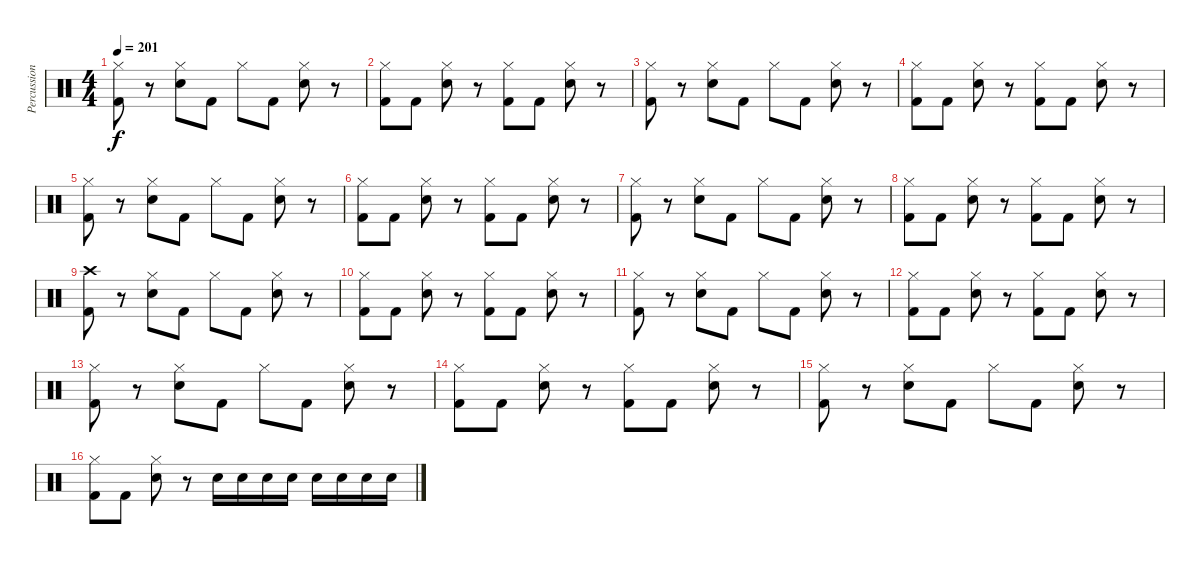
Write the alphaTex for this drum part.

\track ("Percussion" "Percussion") {instrument percussion}
\staff {score}
\articulation defaults
\ts (4 4)
\tempo 201
\clef neutral
\ks c
("Hi-Hat (closed)" "Kick (hit) 2").8{dy f} r.8 ("Hi-Hat (closed)" "Electric Snare (hit)").8 "Kick (hit) 2".8 "Hi-Hat (closed)".8 "Kick (hit) 2".8 ("Hi-Hat (closed)" "Electric Snare (hit)").8 r.8 |
("Hi-Hat (closed)" "Kick (hit) 2").8 "Kick (hit) 2".8 ("Hi-Hat (closed)" "Electric Snare (hit)").8 r.8 ("Hi-Hat (closed)" "Kick (hit) 2").8 "Kick (hit) 2".8 ("Hi-Hat (closed)" "Electric Snare (hit)").8 r.8 |
("Hi-Hat (closed)" "Kick (hit) 2").8 r.8 ("Hi-Hat (closed)" "Electric Snare (hit)").8 "Kick (hit) 2".8 "Hi-Hat (closed)".8 "Kick (hit) 2".8 ("Hi-Hat (closed)" "Electric Snare (hit)").8 r.8 |
("Hi-Hat (closed)" "Kick (hit) 2").8 "Kick (hit) 2".8 ("Hi-Hat (closed)" "Electric Snare (hit)").8 r.8 ("Hi-Hat (closed)" "Kick (hit) 2").8 "Kick (hit) 2".8 ("Hi-Hat (closed)" "Electric Snare (hit)").8 r.8 |
("Hi-Hat (closed)" "Kick (hit) 2").8 r.8 ("Hi-Hat (closed)" "Electric Snare (hit)").8 "Kick (hit) 2".8 "Hi-Hat (closed)".8 "Kick (hit) 2".8 ("Hi-Hat (closed)" "Electric Snare (hit)").8 r.8 |
("Hi-Hat (closed)" "Kick (hit) 2").8 "Kick (hit) 2".8 ("Hi-Hat (closed)" "Electric Snare (hit)").8 r.8 ("Hi-Hat (closed)" "Kick (hit) 2").8 "Kick (hit) 2".8 ("Hi-Hat (closed)" "Electric Snare (hit)").8 r.8 |
("Hi-Hat (closed)" "Kick (hit) 2").8 r.8 ("Hi-Hat (closed)" "Electric Snare (hit)").8 "Kick (hit) 2".8 "Hi-Hat (closed)".8 "Kick (hit) 2".8 ("Hi-Hat (closed)" "Electric Snare (hit)").8 r.8 |
("Hi-Hat (closed)" "Kick (hit) 2").8 "Kick (hit) 2".8 ("Hi-Hat (closed)" "Electric Snare (hit)").8 r.8 ("Hi-Hat (closed)" "Kick (hit) 2").8 "Kick (hit) 2".8 ("Hi-Hat (closed)" "Electric Snare (hit)").8 r.8 |
("Crash high (hit)" "Kick (hit) 2").8 r.8 ("Hi-Hat (closed)" "Electric Snare (hit)").8 "Kick (hit) 2".8 "Hi-Hat (closed)".8 "Kick (hit) 2".8 ("Hi-Hat (closed)" "Electric Snare (hit)").8 r.8 |
("Hi-Hat (closed)" "Kick (hit) 2").8 "Kick (hit) 2".8 ("Hi-Hat (closed)" "Electric Snare (hit)").8 r.8 ("Hi-Hat (closed)" "Kick (hit) 2").8 "Kick (hit) 2".8 ("Hi-Hat (closed)" "Electric Snare (hit)").8 r.8 |
("Hi-Hat (closed)" "Kick (hit) 2").8 r.8 ("Hi-Hat (closed)" "Electric Snare (hit)").8 "Kick (hit) 2".8 "Hi-Hat (closed)".8 "Kick (hit) 2".8 ("Hi-Hat (closed)" "Electric Snare (hit)").8 r.8 |
("Hi-Hat (closed)" "Kick (hit) 2").8 "Kick (hit) 2".8 ("Hi-Hat (closed)" "Electric Snare (hit)").8 r.8 ("Hi-Hat (closed)" "Kick (hit) 2").8 "Kick (hit) 2".8 ("Hi-Hat (closed)" "Electric Snare (hit)").8 r.8 |
("Hi-Hat (closed)" "Kick (hit) 2").8 r.8 ("Hi-Hat (closed)" "Electric Snare (hit)").8 "Kick (hit) 2".8 "Hi-Hat (closed)".8 "Kick (hit) 2".8 ("Hi-Hat (closed)" "Electric Snare (hit)").8 r.8 |
("Hi-Hat (closed)" "Kick (hit) 2").8 "Kick (hit) 2".8 ("Hi-Hat (closed)" "Electric Snare (hit)").8 r.8 ("Hi-Hat (closed)" "Kick (hit) 2").8 "Kick (hit) 2".8 ("Hi-Hat (closed)" "Electric Snare (hit)").8 r.8 |
("Hi-Hat (closed)" "Kick (hit) 2").8 r.8 ("Hi-Hat (closed)" "Electric Snare (hit)").8 "Kick (hit) 2".8 "Hi-Hat (closed)".8 "Kick (hit) 2".8 ("Hi-Hat (closed)" "Electric Snare (hit)").8 r.8 |
("Hi-Hat (closed)" "Kick (hit) 2").8 "Kick (hit) 2".8 ("Hi-Hat (closed)" "Electric Snare (hit)").8 r.8 "Electric Snare (hit)".16 "Electric Snare (hit)".16 "Electric Snare (hit)".16 "Electric Snare (hit)".16 "Electric Snare (hit)".16 "Electric Snare (hit)".16 "Electric Snare (hit)".16 "Electric Snare (hit)".16
